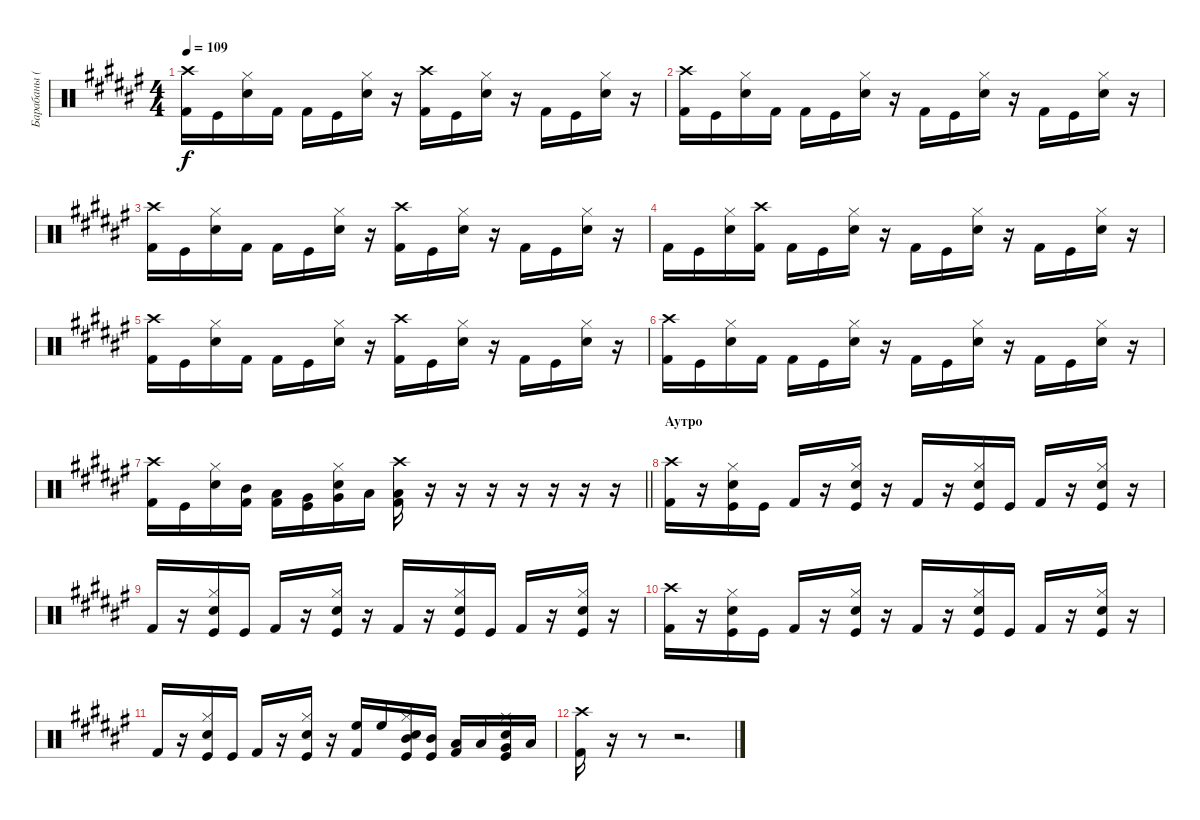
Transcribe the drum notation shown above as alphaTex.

\track ("Барабаны (Н.Лысов)" "Барабаны (") {instrument percussion}
\staff {score}
\articulation defaults
\ts (4 4)
\tempo 109
\clef neutral
\ks f#
("Crash high (hit)" "Kick (hit) 2").16{dy f} "Kick (hit)".16 ("Hi-Hat (closed)" "Snare (hit) 2").16 "Kick (hit) 2".16 "Kick (hit) 2".16 "Kick (hit)".16 ("Hi-Hat (closed)" "Snare (hit) 2").16 r.16 ("Crash high (hit)" "Kick (hit) 2").16 "Kick (hit)".16 ("Hi-Hat (closed)" "Snare (hit) 2").16 r.16 "Kick (hit) 2".16 "Kick (hit)".16 ("Hi-Hat (closed)" "Snare (hit) 2").16 r.16 |
("Crash high (hit)" "Kick (hit) 2").16 "Kick (hit)".16 ("Hi-Hat (closed)" "Snare (hit) 2").16 "Kick (hit) 2".16 "Kick (hit) 2".16 "Kick (hit)".16 ("Hi-Hat (closed)" "Snare (hit) 2").16 r.16 "Kick (hit) 2".16 "Kick (hit)".16 ("Hi-Hat (closed)" "Snare (hit) 2").16 r.16 "Kick (hit) 2".16 "Kick (hit)".16 ("Hi-Hat (closed)" "Snare (hit) 2").16 r.16 |
("Crash high (hit)" "Kick (hit) 2").16 "Kick (hit)".16 ("Hi-Hat (closed)" "Snare (hit) 2").16 "Kick (hit) 2".16 "Kick (hit) 2".16 "Kick (hit)".16 ("Hi-Hat (closed)" "Snare (hit) 2").16 r.16 ("Crash high (hit)" "Kick (hit) 2").16 "Kick (hit)".16 ("Hi-Hat (closed)" "Snare (hit) 2").16 r.16 "Kick (hit) 2".16 "Kick (hit)".16 ("Hi-Hat (closed)" "Snare (hit) 2").16 r.16 |
"Kick (hit) 2".16 "Kick (hit)".16 ("Hi-Hat (closed)" "Snare (hit) 2").16 ("Crash high (hit)" "Kick (hit) 2").16 "Kick (hit) 2".16 "Kick (hit)".16 ("Hi-Hat (closed)" "Snare (hit) 2").16 r.16 "Kick (hit) 2".16 "Kick (hit)".16 ("Hi-Hat (closed)" "Snare (hit) 2").16 r.16 "Kick (hit) 2".16 "Kick (hit)".16 ("Hi-Hat (closed)" "Snare (hit) 2").16 r.16 |
("Crash high (hit)" "Kick (hit) 2").16 "Kick (hit)".16 ("Hi-Hat (closed)" "Snare (hit) 2").16 "Kick (hit) 2".16 "Kick (hit) 2".16 "Kick (hit)".16 ("Hi-Hat (closed)" "Snare (hit) 2").16 r.16 ("Crash high (hit)" "Kick (hit) 2").16 "Kick (hit)".16 ("Hi-Hat (closed)" "Snare (hit) 2").16 r.16 "Kick (hit) 2".16 "Kick (hit)".16 ("Hi-Hat (closed)" "Snare (hit) 2").16 r.16 |
("Crash high (hit)" "Kick (hit) 2").16 "Kick (hit)".16 ("Hi-Hat (closed)" "Snare (hit) 2").16 "Kick (hit) 2".16 "Kick (hit) 2".16 "Kick (hit)".16 ("Hi-Hat (closed)" "Snare (hit) 2").16 r.16 "Kick (hit) 2".16 "Kick (hit)".16 ("Hi-Hat (closed)" "Snare (hit) 2").16 r.16 "Kick (hit) 2".16 "Kick (hit)".16 ("Hi-Hat (closed)" "Snare (hit) 2").16 r.16 |
\barLineRight lightlight
("Crash high (hit)" "Kick (hit) 2").16 "Kick (hit)".16 ("Hi-Hat (closed)" "Snare (hit) 2").16 ("Mid Tom (hit)" "Kick (hit) 2").16 ("Low Tom (hit)" "Kick (hit) 2").16 ("Very Low Tom (hit)" "Kick (hit)").16 ("Hi-Hat (closed)" "Snare (hit) 2" "Very Low Tom (hit)").16 "Low Floor Tom (hit)".16 ("Crash high (hit)" "Low Floor Tom (hit)" "Kick (hit) 2").16 r.16 r.16 r.16 r.16 r.16 r.16 r.16 |
\section ("" "Аутро")
("Crash high (hit)" "Kick (hit) 2").16 r.16 ("Hi-Hat (closed)" "Snare (hit) 2" "Kick (hit)").16 "Kick (hit)".16 "Kick (hit) 2".16 r.16 ("Hi-Hat (closed)" "Snare (hit) 2" "Kick (hit)").16 r.16 "Kick (hit) 2".16 r.16 ("Hi-Hat (closed)" "Snare (hit) 2" "Kick (hit)").16 "Kick (hit)".16 "Kick (hit) 2".16 r.16 ("Hi-Hat (closed)" "Snare (hit) 2" "Kick (hit)").16 r.16 |
"Kick (hit) 2".16 r.16 ("Hi-Hat (closed)" "Snare (hit) 2" "Kick (hit)").16 "Kick (hit)".16 "Kick (hit) 2".16 r.16 ("Hi-Hat (closed)" "Snare (hit) 2" "Kick (hit)").16 r.16 "Kick (hit) 2".16 r.16 ("Hi-Hat (closed)" "Snare (hit) 2" "Kick (hit)").16 "Kick (hit)".16 "Kick (hit) 2".16 r.16 ("Hi-Hat (closed)" "Snare (hit) 2" "Kick (hit)").16 r.16 |
("Crash high (hit)" "Kick (hit) 2").16 r.16 ("Hi-Hat (closed)" "Snare (hit) 2" "Kick (hit)").16 "Kick (hit)".16 "Kick (hit) 2".16 r.16 ("Hi-Hat (closed)" "Snare (hit) 2" "Kick (hit)").16 r.16 "Kick (hit) 2".16 r.16 ("Hi-Hat (closed)" "Snare (hit) 2" "Kick (hit)").16 "Kick (hit)".16 "Kick (hit) 2".16 r.16 ("Hi-Hat (closed)" "Snare (hit) 2" "Kick (hit)").16 r.16 |
"Kick (hit) 2".16 r.16 ("Hi-Hat (closed)" "Snare (hit) 2" "Kick (hit)").16 "Kick (hit)".16 "Kick (hit) 2".16 r.16 ("Hi-Hat (closed)" "Snare (hit) 2" "Kick (hit)").16 r.16 ("High Floor Tom (hit)" "Kick (hit) 2").16 "High Floor Tom (hit)".16 ("Hi-Hat (closed)" "Snare (hit) 2" "Mid Tom (hit)" "Kick (hit)").16 ("Mid Tom (hit)" "Kick (hit)").16 ("Low Tom (hit)" "Kick (hit) 2").16 "Low Tom (hit)".16 ("Hi-Hat (closed)" "Snare (hit) 2" "Very Low Tom (hit)" "Kick (hit)").16 "Low Floor Tom (hit)".16 |
("Crash high (hit)" "Kick (hit) 2").16 r.16 r.8 r.2{d}
